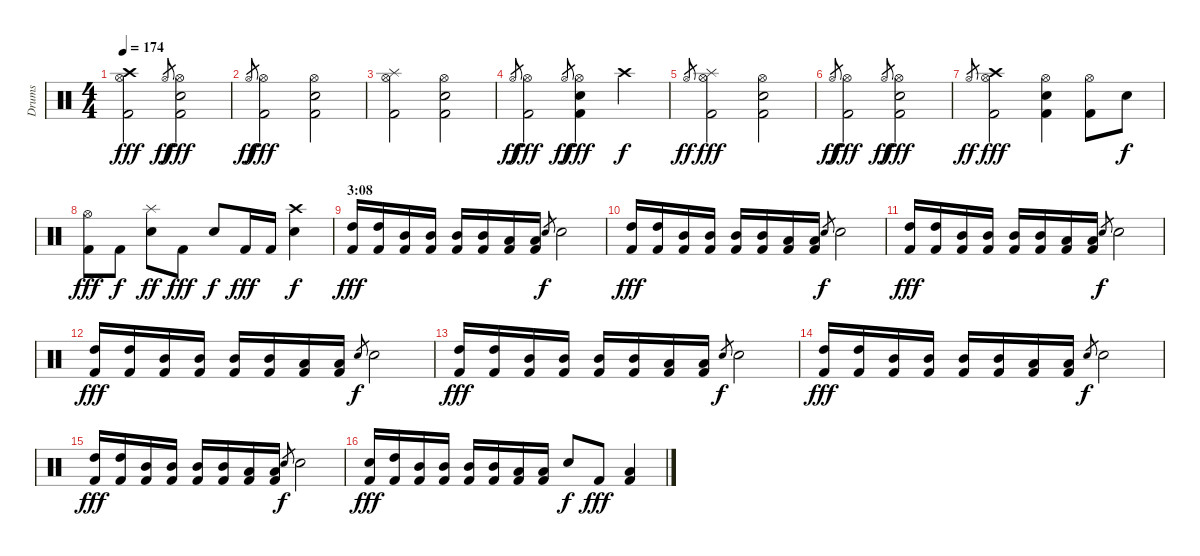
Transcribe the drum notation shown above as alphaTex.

\track ("Drums" "Drums") {instrument percussion}
\staff {score}
\articulation defaults
\ts (4 4)
\tempo 174
\clef neutral
\ks c
("Crash high (hit)" "Hi-Hat (open)" "Kick (hit) 2").2{dy fff} "Hi-Hat (open)".8{gr dy ff} ("Hi-Hat (open)" "Snare (hit) 2" "Kick (hit) 2").2{dy fff} |
"Hi-Hat (open)".8{gr dy ff} ("Hi-Hat (open)" "Kick (hit) 2").2{dy fff} ("Hi-Hat (open)" "Snare (hit) 2" "Kick (hit) 2").2 |
("Splash (hit)" "Hi-Hat (open)" "Kick (hit) 2").2 ("Hi-Hat (open)" "Snare (hit) 2" "Kick (hit) 2").2 |
"Hi-Hat (open)".8{gr dy ff} ("Hi-Hat (open)" "Kick (hit) 2").2{dy fff} "Hi-Hat (open)".8{gr dy ff} ("Hi-Hat (open)" "Snare (hit) 2" "Kick (hit) 2").4{dy fff} "Crash high (hit)".4{dy f} |
"Hi-Hat (open)".8{gr dy ff} ("Splash (hit)" "Hi-Hat (open)" "Kick (hit) 2").2{dy fff} ("Hi-Hat (open)" "Snare (hit) 2" "Kick (hit) 2").2 |
"Hi-Hat (open)".8{gr dy ff} ("Hi-Hat (open)" "Kick (hit) 2").2{dy fff} "Hi-Hat (open)".8{gr dy ff} ("Hi-Hat (open)" "Snare (hit) 2" "Kick (hit) 2").2{dy fff} |
"Hi-Hat (open)".8{gr dy ff} ("Crash high (hit)" "Hi-Hat (open)" "Kick (hit) 2").2{dy fff} ("Hi-Hat (open)" "Snare (hit) 2" "Kick (hit) 2").4 ("Hi-Hat (open)" "Kick (hit) 2").8 "Snare (hit) 2".8{dy f} |
("Hi-Hat (open)" "Kick (hit) 2").8{dy fff} "Kick (hit) 2".8{dy f} ("Splash (hit)" "Snare (hit) 2").8{dy ff} "Kick (hit) 2".8{dy fff} "Snare (hit) 2".8{dy f} "Kick (hit) 2".16{dy fff} "Kick (hit) 2".16 ("Crash high (hit)" "Snare (hit) 2").4{dy f} |
\section ("" "3:08")
("High Tom (hit)" "Kick (hit) 2").16{dy fff} ("High Tom (hit)" "Kick (hit) 2").16 ("Mid Tom (hit)" "Kick (hit) 2").16 ("Mid Tom (hit)" "Kick (hit) 2").16 ("Mid Tom (hit)" "Kick (hit) 2").16 ("Mid Tom (hit)" "Kick (hit) 2").16 ("Low Tom (hit)" "Kick (hit) 2").16 ("Low Tom (hit)" "Kick (hit) 2").16 "Snare (hit) 2".8{gr dy f} "Snare (hit) 2".2 |
("High Tom (hit)" "Kick (hit) 2").16{dy fff} ("High Tom (hit)" "Kick (hit) 2").16 ("Mid Tom (hit)" "Kick (hit) 2").16 ("Mid Tom (hit)" "Kick (hit) 2").16 ("Mid Tom (hit)" "Kick (hit) 2").16 ("Mid Tom (hit)" "Kick (hit) 2").16 ("Low Tom (hit)" "Kick (hit) 2").16 ("Low Tom (hit)" "Kick (hit) 2").16 "Snare (hit) 2".8{gr dy f} "Snare (hit) 2".2 |
("High Tom (hit)" "Kick (hit) 2").16{dy fff} ("High Tom (hit)" "Kick (hit) 2").16 ("Mid Tom (hit)" "Kick (hit) 2").16 ("Mid Tom (hit)" "Kick (hit) 2").16 ("Mid Tom (hit)" "Kick (hit) 2").16 ("Mid Tom (hit)" "Kick (hit) 2").16 ("Low Tom (hit)" "Kick (hit) 2").16 ("Low Tom (hit)" "Kick (hit) 2").16 "Snare (hit) 2".8{gr dy f} "Snare (hit) 2".2 |
("High Tom (hit)" "Kick (hit) 2").16{dy fff} ("High Tom (hit)" "Kick (hit) 2").16 ("Mid Tom (hit)" "Kick (hit) 2").16 ("Mid Tom (hit)" "Kick (hit) 2").16 ("Mid Tom (hit)" "Kick (hit) 2").16 ("Mid Tom (hit)" "Kick (hit) 2").16 ("Low Tom (hit)" "Kick (hit) 2").16 ("Low Tom (hit)" "Kick (hit) 2").16 "Snare (hit) 2".8{gr dy f} "Snare (hit) 2".2 |
("High Tom (hit)" "Kick (hit) 2").16{dy fff} ("High Tom (hit)" "Kick (hit) 2").16 ("Mid Tom (hit)" "Kick (hit) 2").16 ("Mid Tom (hit)" "Kick (hit) 2").16 ("Mid Tom (hit)" "Kick (hit) 2").16 ("Mid Tom (hit)" "Kick (hit) 2").16 ("Low Tom (hit)" "Kick (hit) 2").16 ("Low Tom (hit)" "Kick (hit) 2").16 "Snare (hit) 2".8{gr dy f} "Snare (hit) 2".2 |
("High Tom (hit)" "Kick (hit) 2").16{dy fff} ("High Tom (hit)" "Kick (hit) 2").16 ("Mid Tom (hit)" "Kick (hit) 2").16 ("Mid Tom (hit)" "Kick (hit) 2").16 ("Mid Tom (hit)" "Kick (hit) 2").16 ("Mid Tom (hit)" "Kick (hit) 2").16 ("Low Tom (hit)" "Kick (hit) 2").16 ("Low Tom (hit)" "Kick (hit) 2").16 "Snare (hit) 2".8{gr dy f} "Snare (hit) 2".2 |
("High Tom (hit)" "Kick (hit) 2").16{dy fff} ("High Tom (hit)" "Kick (hit) 2").16 ("Mid Tom (hit)" "Kick (hit) 2").16 ("Mid Tom (hit)" "Kick (hit) 2").16 ("Mid Tom (hit)" "Kick (hit) 2").16 ("Mid Tom (hit)" "Kick (hit) 2").16 ("Low Tom (hit)" "Kick (hit) 2").16 ("Low Tom (hit)" "Kick (hit) 2").16 "Snare (hit) 2".8{gr dy f} "Snare (hit) 2".2 |
("Snare (hit) 2" "Kick (hit) 2").16{dy fff} ("High Tom (hit)" "Kick (hit) 2").16 ("Mid Tom (hit)" "Kick (hit) 2").16 ("Mid Tom (hit)" "Kick (hit) 2").16 ("Mid Tom (hit)" "Kick (hit) 2").16 ("Mid Tom (hit)" "Kick (hit) 2").16 ("Low Tom (hit)" "Kick (hit) 2").16 ("Low Tom (hit)" "Kick (hit) 2").16 "Snare (hit) 2".8{dy f} "Kick (hit) 2".8{dy fff} ("Low Tom (hit)" "Kick (hit) 2").4
